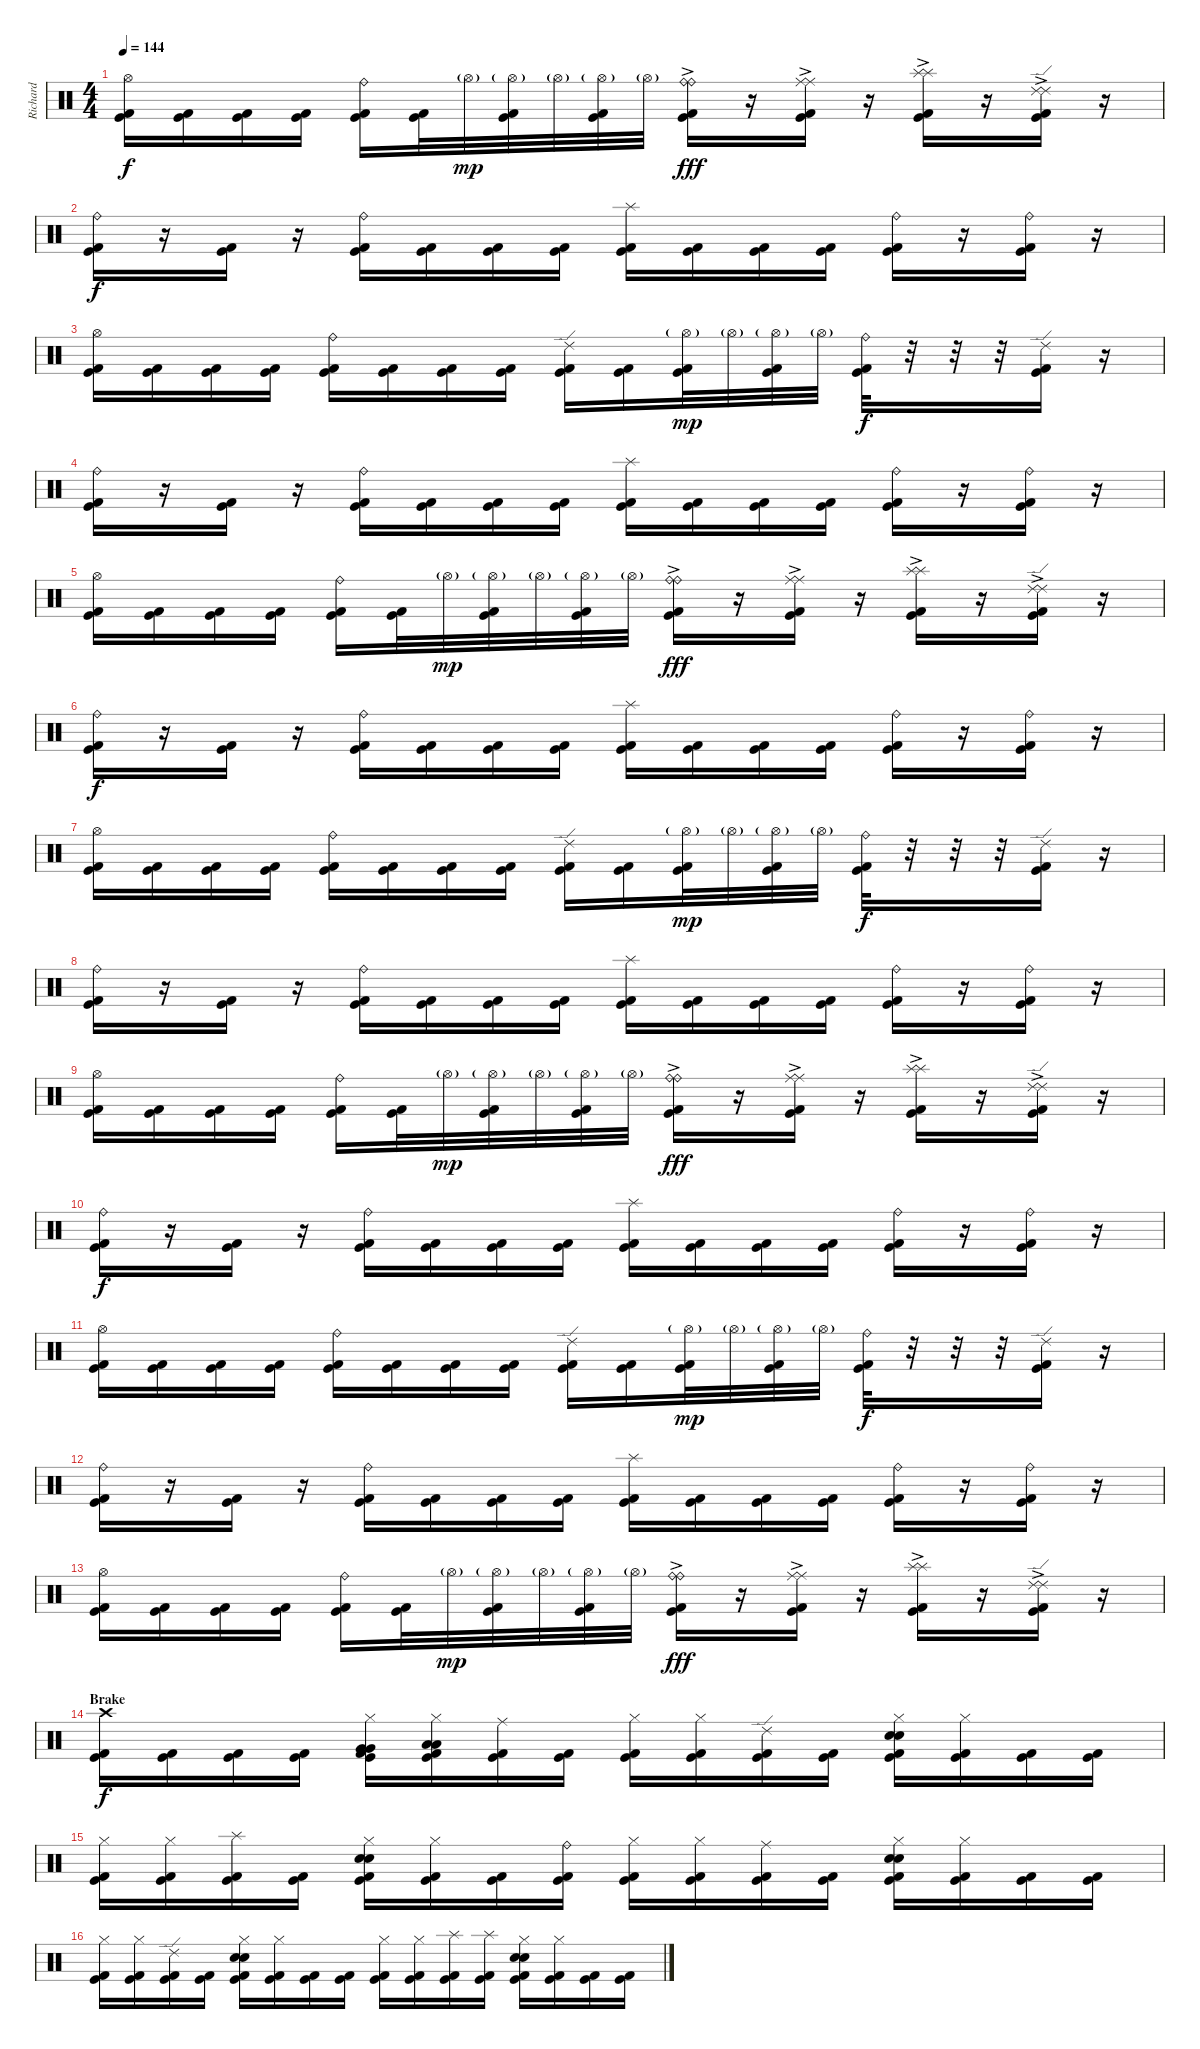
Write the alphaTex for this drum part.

\track ("Richard" "Richard") {instrument percussion}
\staff {score}
\articulation defaults
\ts (4 4)
\tempo 144
\clef neutral
\ks c
("Hi-Hat (open)" "Kick (hit)" "Kick (hit) 2").16{dy f} ("Kick (hit)" "Kick (hit) 2").16 ("Kick (hit)" "Kick (hit) 2").16 ("Kick (hit)" "Kick (hit) 2").16 ("Ride (bell)" "Kick (hit)" "Kick (hit) 2").16 ("Kick (hit)" "Kick (hit) 2").32 "Hi-Hat (open)"{g}.32{dy mp} ("Hi-Hat (open)"{g} "Kick (hit)" "Kick (hit) 2").32 "Hi-Hat (open)"{g}.32 ("Hi-Hat (open)"{g} "Kick (hit)" "Kick (hit) 2").32 "Hi-Hat (open)"{g}.32 ("Ride (bell)"{ac} "Ride (bell)"{ac} "Kick (hit)" "Kick (hit) 2").16{dy fff} r.16 ("Ride (middle)"{ac} "Ride (middle)"{ac} "Kick (hit)" "Kick (hit) 2").16 r.16 ("Splash (hit)"{ac} "Splash (hit)"{ac} "Kick (hit)" "Kick (hit) 2").16 r.16 ("Ride (edge) 2"{ac} "Ride (edge) 2"{ac} "Kick (hit)" "Kick (hit) 2").16 r.16 |
("Ride (bell)" "Kick (hit)" "Kick (hit) 2").16{dy f} r.16 ("Kick (hit)" "Kick (hit) 2").16 r.16 ("Ride (bell)" "Kick (hit)" "Kick (hit) 2").16 ("Kick (hit)" "Kick (hit) 2").16 ("Kick (hit)" "Kick (hit) 2").16 ("Kick (hit)" "Kick (hit) 2").16 ("Splash (hit)" "Kick (hit)" "Kick (hit) 2").16 ("Kick (hit)" "Kick (hit) 2").16 ("Kick (hit)" "Kick (hit) 2").16 ("Kick (hit)" "Kick (hit) 2").16 ("Ride (bell)" "Kick (hit)" "Kick (hit) 2").16 r.16 ("Ride (bell)" "Kick (hit)" "Kick (hit) 2").16 r.16 |
("Hi-Hat (open)" "Kick (hit)" "Kick (hit) 2").16 ("Kick (hit)" "Kick (hit) 2").16 ("Kick (hit)" "Kick (hit) 2").16 ("Kick (hit)" "Kick (hit) 2").16 ("Ride (bell)" "Kick (hit)" "Kick (hit) 2").16 ("Kick (hit)" "Kick (hit) 2").16 ("Kick (hit)" "Kick (hit) 2").16 ("Kick (hit)" "Kick (hit) 2").16 ("Ride (edge) 2" "Kick (hit)" "Kick (hit) 2").16 ("Kick (hit)" "Kick (hit) 2").16 ("Hi-Hat (open)"{g} "Kick (hit)" "Kick (hit) 2").32{dy mp} "Hi-Hat (open)"{g}.32 ("Hi-Hat (open)"{g} "Kick (hit)" "Kick (hit) 2").32 "Hi-Hat (open)"{g}.32 ("Ride (bell)" "Kick (hit)" "Kick (hit) 2").32{dy f} r.32 r.32 r.32 ("Ride (edge) 2" "Kick (hit)" "Kick (hit) 2").16 r.16 |
("Ride (bell)" "Kick (hit)" "Kick (hit) 2").16 r.16 ("Kick (hit)" "Kick (hit) 2").16 r.16 ("Ride (bell)" "Kick (hit)" "Kick (hit) 2").16 ("Kick (hit)" "Kick (hit) 2").16 ("Kick (hit)" "Kick (hit) 2").16 ("Kick (hit)" "Kick (hit) 2").16 ("Splash (hit)" "Kick (hit)" "Kick (hit) 2").16 ("Kick (hit)" "Kick (hit) 2").16 ("Kick (hit)" "Kick (hit) 2").16 ("Kick (hit)" "Kick (hit) 2").16 ("Ride (bell)" "Kick (hit)" "Kick (hit) 2").16 r.16 ("Ride (bell)" "Kick (hit)" "Kick (hit) 2").16 r.16 |
("Hi-Hat (open)" "Kick (hit)" "Kick (hit) 2").16 ("Kick (hit)" "Kick (hit) 2").16 ("Kick (hit)" "Kick (hit) 2").16 ("Kick (hit)" "Kick (hit) 2").16 ("Ride (bell)" "Kick (hit)" "Kick (hit) 2").16 ("Kick (hit)" "Kick (hit) 2").32 "Hi-Hat (open)"{g}.32{dy mp} ("Hi-Hat (open)"{g} "Kick (hit)" "Kick (hit) 2").32 "Hi-Hat (open)"{g}.32 ("Hi-Hat (open)"{g} "Kick (hit)" "Kick (hit) 2").32 "Hi-Hat (open)"{g}.32 ("Ride (bell)"{ac} "Ride (bell)"{ac} "Kick (hit)" "Kick (hit) 2").16{dy fff} r.16 ("Ride (middle)"{ac} "Ride (middle)"{ac} "Kick (hit)" "Kick (hit) 2").16 r.16 ("Splash (hit)"{ac} "Splash (hit)"{ac} "Kick (hit)" "Kick (hit) 2").16 r.16 ("Ride (edge) 2"{ac} "Ride (edge) 2"{ac} "Kick (hit)" "Kick (hit) 2").16 r.16 |
("Ride (bell)" "Kick (hit)" "Kick (hit) 2").16{dy f} r.16 ("Kick (hit)" "Kick (hit) 2").16 r.16 ("Ride (bell)" "Kick (hit)" "Kick (hit) 2").16 ("Kick (hit)" "Kick (hit) 2").16 ("Kick (hit)" "Kick (hit) 2").16 ("Kick (hit)" "Kick (hit) 2").16 ("Splash (hit)" "Kick (hit)" "Kick (hit) 2").16 ("Kick (hit)" "Kick (hit) 2").16 ("Kick (hit)" "Kick (hit) 2").16 ("Kick (hit)" "Kick (hit) 2").16 ("Ride (bell)" "Kick (hit)" "Kick (hit) 2").16 r.16 ("Ride (bell)" "Kick (hit)" "Kick (hit) 2").16 r.16 |
("Hi-Hat (open)" "Kick (hit)" "Kick (hit) 2").16 ("Kick (hit)" "Kick (hit) 2").16 ("Kick (hit)" "Kick (hit) 2").16 ("Kick (hit)" "Kick (hit) 2").16 ("Ride (bell)" "Kick (hit)" "Kick (hit) 2").16 ("Kick (hit)" "Kick (hit) 2").16 ("Kick (hit)" "Kick (hit) 2").16 ("Kick (hit)" "Kick (hit) 2").16 ("Ride (edge) 2" "Kick (hit)" "Kick (hit) 2").16 ("Kick (hit)" "Kick (hit) 2").16 ("Hi-Hat (open)"{g} "Kick (hit)" "Kick (hit) 2").32{dy mp} "Hi-Hat (open)"{g}.32 ("Hi-Hat (open)"{g} "Kick (hit)" "Kick (hit) 2").32 "Hi-Hat (open)"{g}.32 ("Ride (bell)" "Kick (hit)" "Kick (hit) 2").32{dy f} r.32 r.32 r.32 ("Ride (edge) 2" "Kick (hit)" "Kick (hit) 2").16 r.16 |
("Ride (bell)" "Kick (hit)" "Kick (hit) 2").16 r.16 ("Kick (hit)" "Kick (hit) 2").16 r.16 ("Ride (bell)" "Kick (hit)" "Kick (hit) 2").16 ("Kick (hit)" "Kick (hit) 2").16 ("Kick (hit)" "Kick (hit) 2").16 ("Kick (hit)" "Kick (hit) 2").16 ("Splash (hit)" "Kick (hit)" "Kick (hit) 2").16 ("Kick (hit)" "Kick (hit) 2").16 ("Kick (hit)" "Kick (hit) 2").16 ("Kick (hit)" "Kick (hit) 2").16 ("Ride (bell)" "Kick (hit)" "Kick (hit) 2").16 r.16 ("Ride (bell)" "Kick (hit)" "Kick (hit) 2").16 r.16 |
("Hi-Hat (open)" "Kick (hit)" "Kick (hit) 2").16 ("Kick (hit)" "Kick (hit) 2").16 ("Kick (hit)" "Kick (hit) 2").16 ("Kick (hit)" "Kick (hit) 2").16 ("Ride (bell)" "Kick (hit)" "Kick (hit) 2").16 ("Kick (hit)" "Kick (hit) 2").32 "Hi-Hat (open)"{g}.32{dy mp} ("Hi-Hat (open)"{g} "Kick (hit)" "Kick (hit) 2").32 "Hi-Hat (open)"{g}.32 ("Hi-Hat (open)"{g} "Kick (hit)" "Kick (hit) 2").32 "Hi-Hat (open)"{g}.32 ("Ride (bell)"{ac} "Ride (bell)"{ac} "Kick (hit)" "Kick (hit) 2").16{dy fff} r.16 ("Ride (middle)"{ac} "Ride (middle)"{ac} "Kick (hit)" "Kick (hit) 2").16 r.16 ("Splash (hit)"{ac} "Splash (hit)"{ac} "Kick (hit)" "Kick (hit) 2").16 r.16 ("Ride (edge) 2"{ac} "Ride (edge) 2"{ac} "Kick (hit)" "Kick (hit) 2").16 r.16 |
("Ride (bell)" "Kick (hit)" "Kick (hit) 2").16{dy f} r.16 ("Kick (hit)" "Kick (hit) 2").16 r.16 ("Ride (bell)" "Kick (hit)" "Kick (hit) 2").16 ("Kick (hit)" "Kick (hit) 2").16 ("Kick (hit)" "Kick (hit) 2").16 ("Kick (hit)" "Kick (hit) 2").16 ("Splash (hit)" "Kick (hit)" "Kick (hit) 2").16 ("Kick (hit)" "Kick (hit) 2").16 ("Kick (hit)" "Kick (hit) 2").16 ("Kick (hit)" "Kick (hit) 2").16 ("Ride (bell)" "Kick (hit)" "Kick (hit) 2").16 r.16 ("Ride (bell)" "Kick (hit)" "Kick (hit) 2").16 r.16 |
("Hi-Hat (open)" "Kick (hit)" "Kick (hit) 2").16 ("Kick (hit)" "Kick (hit) 2").16 ("Kick (hit)" "Kick (hit) 2").16 ("Kick (hit)" "Kick (hit) 2").16 ("Ride (bell)" "Kick (hit)" "Kick (hit) 2").16 ("Kick (hit)" "Kick (hit) 2").16 ("Kick (hit)" "Kick (hit) 2").16 ("Kick (hit)" "Kick (hit) 2").16 ("Ride (edge) 2" "Kick (hit)" "Kick (hit) 2").16 ("Kick (hit)" "Kick (hit) 2").16 ("Hi-Hat (open)"{g} "Kick (hit)" "Kick (hit) 2").32{dy mp} "Hi-Hat (open)"{g}.32 ("Hi-Hat (open)"{g} "Kick (hit)" "Kick (hit) 2").32 "Hi-Hat (open)"{g}.32 ("Ride (bell)" "Kick (hit)" "Kick (hit) 2").32{dy f} r.32 r.32 r.32 ("Ride (edge) 2" "Kick (hit)" "Kick (hit) 2").16 r.16 |
("Ride (bell)" "Kick (hit)" "Kick (hit) 2").16 r.16 ("Kick (hit)" "Kick (hit) 2").16 r.16 ("Ride (bell)" "Kick (hit)" "Kick (hit) 2").16 ("Kick (hit)" "Kick (hit) 2").16 ("Kick (hit)" "Kick (hit) 2").16 ("Kick (hit)" "Kick (hit) 2").16 ("Splash (hit)" "Kick (hit)" "Kick (hit) 2").16 ("Kick (hit)" "Kick (hit) 2").16 ("Kick (hit)" "Kick (hit) 2").16 ("Kick (hit)" "Kick (hit) 2").16 ("Ride (bell)" "Kick (hit)" "Kick (hit) 2").16 r.16 ("Ride (bell)" "Kick (hit)" "Kick (hit) 2").16 r.16 |
("Hi-Hat (open)" "Kick (hit)" "Kick (hit) 2").16 ("Kick (hit)" "Kick (hit) 2").16 ("Kick (hit)" "Kick (hit) 2").16 ("Kick (hit)" "Kick (hit) 2").16 ("Ride (bell)" "Kick (hit)" "Kick (hit) 2").16 ("Kick (hit)" "Kick (hit) 2").32 "Hi-Hat (open)"{g}.32{dy mp} ("Hi-Hat (open)"{g} "Kick (hit)" "Kick (hit) 2").32 "Hi-Hat (open)"{g}.32 ("Hi-Hat (open)"{g} "Kick (hit)" "Kick (hit) 2").32 "Hi-Hat (open)"{g}.32 ("Ride (bell)"{ac} "Ride (bell)"{ac} "Kick (hit)" "Kick (hit) 2").16{dy fff} r.16 ("Ride (middle)"{ac} "Ride (middle)"{ac} "Kick (hit)" "Kick (hit) 2").16 r.16 ("Splash (hit)"{ac} "Splash (hit)"{ac} "Kick (hit)" "Kick (hit) 2").16 r.16 ("Ride (edge) 2"{ac} "Ride (edge) 2"{ac} "Kick (hit)" "Kick (hit) 2").16 r.16 |
\section ("" "Brake")
("Crash high (hit)" "Kick (hit) 2" "Kick (hit)").16{dy f} ("Kick (hit) 2" "Kick (hit)").16 ("Kick (hit) 2" "Kick (hit)").16 ("Kick (hit) 2" "Kick (hit)").16 ("Hi-Hat (closed)" "Very Low Tom (hit)" "Very Low Tom (hit)" "Kick (hit) 2" "Kick (hit)").16 ("Hi-Hat (closed)" "Low Floor Tom (hit)" "Low Floor Tom (hit)" "Kick (hit) 2" "Kick (hit)").16 ("Ride (middle)" "Kick (hit) 2" "Kick (hit)").16 ("Kick (hit) 2" "Kick (hit)").16 ("Hi-Hat (closed)" "Kick (hit) 2" "Kick (hit)").16 ("Hi-Hat (closed)" "Kick (hit) 2" "Kick (hit)").16 ("Ride (edge) 2" "Kick (hit) 2" "Kick (hit)").16 ("Kick (hit) 2" "Kick (hit)").16 ("Hi-Hat (closed)" "Snare (hit) 2" "Electric Snare (hit)" "Kick (hit) 2" "Kick (hit)").16 ("Hi-Hat (closed)" "Kick (hit) 2" "Kick (hit)").16 ("Kick (hit) 2" "Kick (hit)").16 ("Kick (hit) 2" "Kick (hit)").16 |
("Hi-Hat (closed)" "Kick (hit) 2" "Kick (hit)").16 ("Hi-Hat (closed)" "Kick (hit) 2" "Kick (hit)").16 ("Splash (hit)" "Kick (hit) 2" "Kick (hit)").16 ("Kick (hit) 2" "Kick (hit)").16 ("Hi-Hat (closed)" "Snare (hit) 2" "Electric Snare (hit)" "Kick (hit) 2" "Kick (hit)").16 ("Hi-Hat (closed)" "Kick (hit) 2" "Kick (hit)").16 ("Kick (hit) 2" "Kick (hit)").16 ("Ride (bell)" "Kick (hit) 2" "Kick (hit)").16 ("Hi-Hat (closed)" "Kick (hit) 2" "Kick (hit)").16 ("Hi-Hat (closed)" "Kick (hit) 2" "Kick (hit)").16 ("Ride (middle)" "Kick (hit) 2" "Kick (hit)").16 ("Kick (hit) 2" "Kick (hit)").16 ("Hi-Hat (closed)" "Snare (hit) 2" "Electric Snare (hit)" "Kick (hit) 2" "Kick (hit)").16 ("Hi-Hat (closed)" "Kick (hit) 2" "Kick (hit)").16 ("Kick (hit) 2" "Kick (hit)").16 ("Kick (hit) 2" "Kick (hit)").16 |
("Hi-Hat (closed)" "Kick (hit) 2" "Kick (hit)").16 ("Hi-Hat (closed)" "Kick (hit) 2" "Kick (hit)").16 ("Ride (edge) 2" "Kick (hit) 2" "Kick (hit)").16 ("Kick (hit) 2" "Kick (hit)").16 ("Hi-Hat (closed)" "Snare (hit) 2" "Electric Snare (hit)" "Kick (hit) 2" "Kick (hit)").16 ("Hi-Hat (closed)" "Kick (hit) 2" "Kick (hit)").16 ("Kick (hit) 2" "Kick (hit)").16 ("Kick (hit) 2" "Kick (hit)").16 ("Hi-Hat (closed)" "Kick (hit) 2" "Kick (hit)").16 ("Hi-Hat (closed)" "Kick (hit) 2" "Kick (hit)").16 ("Splash (hit)" "Kick (hit) 2" "Kick (hit)").16 ("Splash (hit)" "Kick (hit) 2" "Kick (hit)").16 ("Hi-Hat (closed)" "Snare (hit) 2" "Electric Snare (hit)" "Kick (hit) 2" "Kick (hit)").16 ("Hi-Hat (closed)" "Kick (hit) 2" "Kick (hit)").16 ("Kick (hit) 2" "Kick (hit)").16 ("Kick (hit) 2" "Kick (hit)").16
